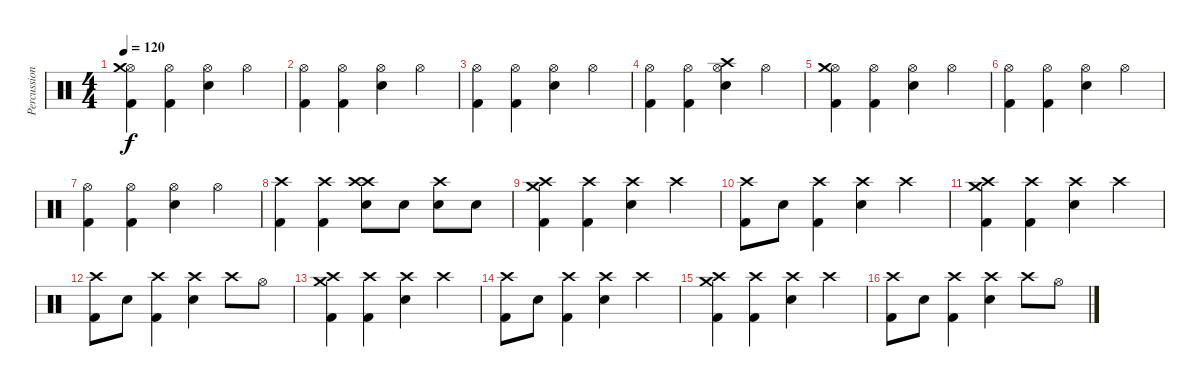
\track ("Percussioni" "Percussion") {instrument percussion}
\staff {score}
\articulation defaults
\ts (4 4)
\tempo 120
\clef neutral
\ks c
("Hi-Hat (open)" "Crash medium (hit)" "Kick (hit) 2").4{dy f} ("Hi-Hat (open)" "Kick (hit) 2").4 ("Hi-Hat (open)" "Snare (hit) 2").4 "Hi-Hat (open)".4 |
("Hi-Hat (open)" "Kick (hit) 2").4 ("Hi-Hat (open)" "Kick (hit) 2").4 ("Hi-Hat (open)" "Snare (hit) 2").4 "Hi-Hat (open)".4 |
("Hi-Hat (open)" "Kick (hit) 2").4 ("Hi-Hat (open)" "Kick (hit) 2").4 ("Hi-Hat (open)" "Snare (hit) 2").4 "Hi-Hat (open)".4 |
("Hi-Hat (open)" "Kick (hit) 2").4 ("Hi-Hat (open)" "Kick (hit) 2").4 ("Hi-Hat (open)" "Crash high (hit)" "Snare (hit) 2").4 "Hi-Hat (open)".4 |
("Hi-Hat (open)" "Crash medium (hit)" "Kick (hit) 2").4 ("Hi-Hat (open)" "Kick (hit) 2").4 ("Hi-Hat (open)" "Snare (hit) 2").4 "Hi-Hat (open)".4 |
("Hi-Hat (open)" "Kick (hit) 2").4 ("Hi-Hat (open)" "Kick (hit) 2").4 ("Hi-Hat (open)" "Snare (hit) 2").4 "Hi-Hat (open)".4 |
("Hi-Hat (open)" "Kick (hit) 2").4 ("Hi-Hat (open)" "Kick (hit) 2").4 ("Hi-Hat (open)" "Snare (hit) 2").4 "Hi-Hat (open)".4 |
("Crash high (hit)" "Kick (hit) 2").4 ("Crash high (hit)" "Kick (hit) 2").4 ("Crash high (hit)" "Crash high (hit)" "Snare (hit) 2").8 "Snare (hit) 2".8 ("Crash high (hit)" "Snare (hit) 2").8 "Snare (hit) 2".8 |
("Crash high (hit)" "Kick (hit) 2" "Crash medium (hit)").4 ("Crash high (hit)" "Kick (hit) 2").4 ("Crash high (hit)" "Snare (hit) 2").4 "Crash high (hit)".4 |
("Crash high (hit)" "Kick (hit) 2").8 "Snare (hit) 2".8 ("Crash high (hit)" "Kick (hit) 2").4 ("Crash high (hit)" "Snare (hit) 2").4 "Crash high (hit)".4 |
("Crash high (hit)" "Kick (hit) 2" "Crash medium (hit)").4 ("Crash high (hit)" "Kick (hit) 2").4 ("Crash high (hit)" "Snare (hit) 2").4 "Crash high (hit)".4 |
("Crash high (hit)" "Kick (hit) 2").8 "Snare (hit) 2".8 ("Crash high (hit)" "Kick (hit) 2").4 ("Crash high (hit)" "Snare (hit) 2").4 "Crash high (hit)".8 "Hi-Hat (open)".8 |
("Crash high (hit)" "Kick (hit) 2" "Crash medium (hit)").4 ("Crash high (hit)" "Kick (hit) 2").4 ("Crash high (hit)" "Snare (hit) 2").4 "Crash high (hit)".4 |
("Crash high (hit)" "Kick (hit) 2").8 "Snare (hit) 2".8 ("Crash high (hit)" "Kick (hit) 2").4 ("Crash high (hit)" "Snare (hit) 2").4 "Crash high (hit)".4 |
("Crash high (hit)" "Kick (hit) 2" "Crash medium (hit)").4 ("Crash high (hit)" "Kick (hit) 2").4 ("Crash high (hit)" "Snare (hit) 2").4 "Crash high (hit)".4 |
("Crash high (hit)" "Kick (hit) 2").8 "Snare (hit) 2".8 ("Crash high (hit)" "Kick (hit) 2").4 ("Crash high (hit)" "Snare (hit) 2").4 "Crash high (hit)".8 "Hi-Hat (open)".8
